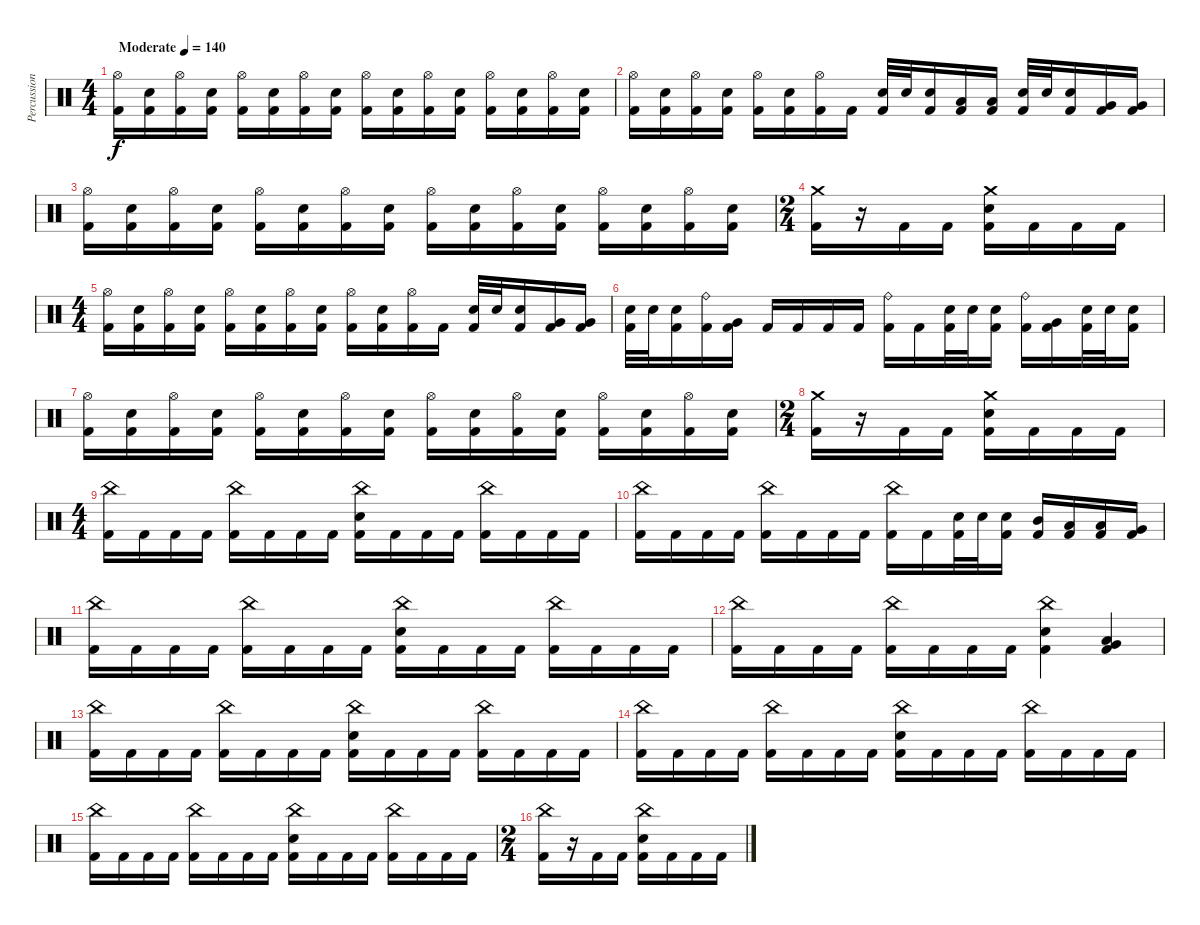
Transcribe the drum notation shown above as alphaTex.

\track ("Percussion" "Percussion") {instrument percussion}
\staff {score}
\articulation defaults
\ts (4 4)
\tempo (140 "Moderate")
\clef neutral
\ks c
("Hi-Hat (open)" "Kick (hit) 2").16{dy f} ("Snare (hit) 2" "Kick (hit) 2").16 ("Hi-Hat (open)" "Kick (hit) 2").16 ("Snare (hit) 2" "Kick (hit) 2").16 ("Hi-Hat (open)" "Kick (hit) 2").16 ("Snare (hit) 2" "Kick (hit) 2").16 ("Hi-Hat (open)" "Kick (hit) 2").16 ("Snare (hit) 2" "Kick (hit) 2").16 ("Hi-Hat (open)" "Kick (hit) 2").16 ("Snare (hit) 2" "Kick (hit) 2").16 ("Hi-Hat (open)" "Kick (hit) 2").16 ("Snare (hit) 2" "Kick (hit) 2").16 ("Hi-Hat (open)" "Kick (hit) 2").16 ("Snare (hit) 2" "Kick (hit) 2").16 ("Hi-Hat (open)" "Kick (hit) 2").16 ("Snare (hit) 2" "Kick (hit) 2").16 |
("Hi-Hat (open)" "Kick (hit) 2").16 ("Snare (hit) 2" "Kick (hit) 2").16 ("Hi-Hat (open)" "Kick (hit) 2").16 ("Snare (hit) 2" "Kick (hit) 2").16 ("Hi-Hat (open)" "Kick (hit) 2").16 ("Snare (hit) 2" "Kick (hit) 2").16 ("Hi-Hat (open)" "Kick (hit) 2").16 "Kick (hit) 2".16 ("Snare (hit) 2" "Kick (hit) 2").32 "Snare (hit) 2".32 ("Snare (hit) 2" "Kick (hit) 2").16 ("Low Tom (hit)" "Kick (hit) 2").16 ("Low Tom (hit)" "Kick (hit) 2").16 ("Snare (hit) 2" "Kick (hit) 2").32 "Snare (hit) 2".32 ("Snare (hit) 2" "Kick (hit) 2").16 ("Very Low Tom (hit)" "Kick (hit) 2").16 ("Very Low Tom (hit)" "Kick (hit) 2").16 |
("Hi-Hat (open)" "Kick (hit) 2").16 ("Snare (hit) 2" "Kick (hit) 2").16 ("Hi-Hat (open)" "Kick (hit) 2").16 ("Snare (hit) 2" "Kick (hit) 2").16 ("Hi-Hat (open)" "Kick (hit) 2").16 ("Snare (hit) 2" "Kick (hit) 2").16 ("Hi-Hat (open)" "Kick (hit) 2").16 ("Snare (hit) 2" "Kick (hit) 2").16 ("Hi-Hat (open)" "Kick (hit) 2").16 ("Snare (hit) 2" "Kick (hit) 2").16 ("Hi-Hat (open)" "Kick (hit) 2").16 ("Snare (hit) 2" "Kick (hit) 2").16 ("Hi-Hat (open)" "Kick (hit) 2").16 ("Snare (hit) 2" "Kick (hit) 2").16 ("Hi-Hat (open)" "Kick (hit) 2").16 ("Snare (hit) 2" "Kick (hit) 2").16 |
\ts (2 4)
("Crash medium (hit)" "Kick (hit) 2").16 r.16 "Kick (hit) 2".16 "Kick (hit) 2".16 ("Crash medium (hit)" "Snare (hit) 2" "Kick (hit) 2").16 "Kick (hit) 2".16 "Kick (hit) 2".16 "Kick (hit) 2".16 |
\ts (4 4)
("Hi-Hat (open)" "Kick (hit) 2").16 ("Snare (hit) 2" "Kick (hit) 2").16 ("Hi-Hat (open)" "Kick (hit) 2").16 ("Snare (hit) 2" "Kick (hit) 2").16 ("Hi-Hat (open)" "Kick (hit) 2").16 ("Snare (hit) 2" "Kick (hit) 2").16 ("Hi-Hat (open)" "Kick (hit) 2").16 ("Snare (hit) 2" "Kick (hit) 2").16 ("Hi-Hat (open)" "Kick (hit) 2").16 ("Snare (hit) 2" "Kick (hit) 2").16 ("Hi-Hat (open)" "Kick (hit) 2").16 "Kick (hit) 2".16 ("Snare (hit) 2" "Kick (hit) 2").32 "Snare (hit) 2".32 ("Snare (hit) 2" "Kick (hit) 2").16 ("Very Low Tom (hit)" "Kick (hit) 2").16 ("Very Low Tom (hit)" "Kick (hit) 2").16 |
("Snare (hit) 2" "Kick (hit) 2").32 "Snare (hit) 2".32 ("Snare (hit) 2" "Kick (hit) 2").16 ("Ride (bell)" "Kick (hit) 2").16 ("Very Low Tom (hit)" "Kick (hit) 2").16 "Kick (hit) 2".16 "Kick (hit) 2".16 "Kick (hit) 2".16 "Kick (hit) 2".16 ("Ride (bell)" "Kick (hit) 2").16 "Kick (hit) 2".16 ("Snare (hit) 2" "Kick (hit) 2").32 "Snare (hit) 2".32 ("Snare (hit) 2" "Kick (hit) 2").16 ("Ride (bell)" "Kick (hit) 2").16 ("Very Low Tom (hit)" "Kick (hit) 2").16 ("Snare (hit) 2" "Kick (hit) 2").32 "Snare (hit) 2".32 ("Snare (hit) 2" "Kick (hit) 2").16 |
("Hi-Hat (open)" "Kick (hit) 2").16 ("Snare (hit) 2" "Kick (hit) 2").16 ("Hi-Hat (open)" "Kick (hit) 2").16 ("Snare (hit) 2" "Kick (hit) 2").16 ("Hi-Hat (open)" "Kick (hit) 2").16 ("Snare (hit) 2" "Kick (hit) 2").16 ("Hi-Hat (open)" "Kick (hit) 2").16 ("Snare (hit) 2" "Kick (hit) 2").16 ("Hi-Hat (open)" "Kick (hit) 2").16 ("Snare (hit) 2" "Kick (hit) 2").16 ("Hi-Hat (open)" "Kick (hit) 2").16 ("Snare (hit) 2" "Kick (hit) 2").16 ("Hi-Hat (open)" "Kick (hit) 2").16 ("Snare (hit) 2" "Kick (hit) 2").16 ("Hi-Hat (open)" "Kick (hit) 2").16 ("Snare (hit) 2" "Kick (hit) 2").16 |
\ts (2 4)
("Crash medium (hit)" "Kick (hit) 2").16 r.16 "Kick (hit) 2".16 "Kick (hit) 2".16 ("Crash medium (hit)" "Snare (hit) 2" "Kick (hit) 2").16 "Kick (hit) 2".16 "Kick (hit) 2".16 "Kick (hit) 2".16 |
\ts (4 4)
("China (hit)" "Kick (hit) 2").16 "Kick (hit) 2".16 "Kick (hit) 2".16 "Kick (hit) 2".16 ("China (hit)" "Kick (hit) 2").16 "Kick (hit) 2".16 "Kick (hit) 2".16 "Kick (hit) 2".16 ("China (hit)" "Snare (hit) 2" "Kick (hit) 2").16 "Kick (hit) 2".16 "Kick (hit) 2".16 "Kick (hit) 2".16 ("China (hit)" "Kick (hit) 2").16 "Kick (hit) 2".16 "Kick (hit) 2".16 "Kick (hit) 2".16 |
("China (hit)" "Kick (hit) 2").16 "Kick (hit) 2".16 "Kick (hit) 2".16 "Kick (hit) 2".16 ("China (hit)" "Kick (hit) 2").16 "Kick (hit) 2".16 "Kick (hit) 2".16 "Kick (hit) 2".16 ("China (hit)" "Kick (hit) 2").16 "Kick (hit) 2".16 ("Snare (hit) 2" "Kick (hit) 2").32 "Snare (hit) 2".32 ("Snare (hit) 2" "Kick (hit) 2").16 ("Mid Tom (hit)" "Kick (hit) 2").16 ("Low Tom (hit)" "Kick (hit) 2").16 ("Low Tom (hit)" "Kick (hit) 2").16 ("Very Low Tom (hit)" "Kick (hit) 2").16 |
("China (hit)" "Kick (hit) 2").16 "Kick (hit) 2".16 "Kick (hit) 2".16 "Kick (hit) 2".16 ("China (hit)" "Kick (hit) 2").16 "Kick (hit) 2".16 "Kick (hit) 2".16 "Kick (hit) 2".16 ("China (hit)" "Snare (hit) 2" "Kick (hit) 2").16 "Kick (hit) 2".16 "Kick (hit) 2".16 "Kick (hit) 2".16 ("China (hit)" "Kick (hit) 2").16 "Kick (hit) 2".16 "Kick (hit) 2".16 "Kick (hit) 2".16 |
("China (hit)" "Kick (hit) 2").16 "Kick (hit) 2".16 "Kick (hit) 2".16 "Kick (hit) 2".16 ("China (hit)" "Kick (hit) 2").16 "Kick (hit) 2".16 "Kick (hit) 2".16 "Kick (hit) 2".16 ("China (hit)" "Snare (hit) 2" "Kick (hit) 2").4 ("Low Floor Tom (hit)" "Very Low Tom (hit)" "Kick (hit) 2").4 |
("China (hit)" "Kick (hit) 2").16 "Kick (hit) 2".16 "Kick (hit) 2".16 "Kick (hit) 2".16 ("China (hit)" "Kick (hit) 2").16 "Kick (hit) 2".16 "Kick (hit) 2".16 "Kick (hit) 2".16 ("China (hit)" "Snare (hit) 2" "Kick (hit) 2").16 "Kick (hit) 2".16 "Kick (hit) 2".16 "Kick (hit) 2".16 ("China (hit)" "Kick (hit) 2").16 "Kick (hit) 2".16 "Kick (hit) 2".16 "Kick (hit) 2".16 |
("China (hit)" "Kick (hit) 2").16 "Kick (hit) 2".16 "Kick (hit) 2".16 "Kick (hit) 2".16 ("China (hit)" "Kick (hit) 2").16 "Kick (hit) 2".16 "Kick (hit) 2".16 "Kick (hit) 2".16 ("China (hit)" "Snare (hit) 2" "Kick (hit) 2").16 "Kick (hit) 2".16 "Kick (hit) 2".16 "Kick (hit) 2".16 ("China (hit)" "Kick (hit) 2").16 "Kick (hit) 2".16 "Kick (hit) 2".16 "Kick (hit) 2".16 |
("China (hit)" "Kick (hit) 2").16 "Kick (hit) 2".16 "Kick (hit) 2".16 "Kick (hit) 2".16 ("China (hit)" "Kick (hit) 2").16 "Kick (hit) 2".16 "Kick (hit) 2".16 "Kick (hit) 2".16 ("China (hit)" "Snare (hit) 2" "Kick (hit) 2").16 "Kick (hit) 2".16 "Kick (hit) 2".16 "Kick (hit) 2".16 ("China (hit)" "Kick (hit) 2").16 "Kick (hit) 2".16 "Kick (hit) 2".16 "Kick (hit) 2".16 |
\ts (2 4)
("China (hit)" "Kick (hit) 2").16 r.16 "Kick (hit) 2".16 "Kick (hit) 2".16 ("China (hit)" "Snare (hit) 2" "Kick (hit) 2").16 "Kick (hit) 2".16 "Kick (hit) 2".16 "Kick (hit) 2".16
